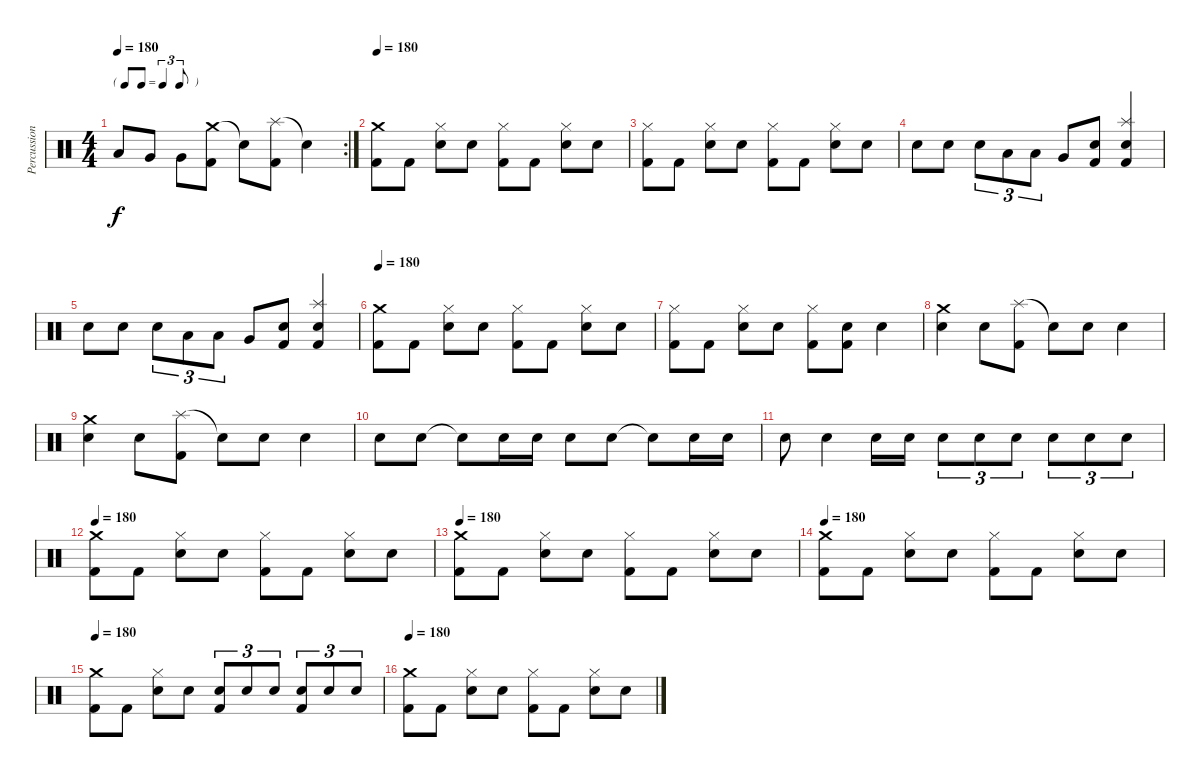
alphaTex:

\track ("Percussions" "Percussion") {instrument percussion}
\staff {score}
\articulation defaults
\rc 2
\ts (4 4)
\tf triplet8th
\tempo 180
\clef neutral
\ks c "Low Tom (hit)".8{dy f} "Very Low Tom (hit)".8 "Very Low Tom (hit)".8
("Crash medium (hit)" "Kick (hit) 2").8 "Snare (hit)"{t}.8 ("Splash (hit)" "Kick (hit) 2").8 "Snare (hit)"{t}.4 |
\tempo 180
("Crash medium (hit)" "Kick (hit) 2").8 "Kick (hit) 2".8 ("Hi-Hat (closed)" "Electric Snare (hit)").8 "Electric Snare (hit)".8 ("Hi-Hat (closed)" "Kick (hit) 2").8 "Kick (hit) 2".8 ("Hi-Hat (closed)" "Electric Snare (hit)").8 "Electric Snare (hit)".8 |
("Hi-Hat (closed)" "Kick (hit) 2").8 "Kick (hit) 2".8 ("Hi-Hat (closed)" "Electric Snare (hit)").8 "Electric Snare (hit)".8 ("Hi-Hat (closed)" "Kick (hit) 2").8 "Kick (hit) 2".8 ("Hi-Hat (closed)" "Electric Snare (hit)").8 "Electric Snare (hit)".8 |
"Electric Snare (hit)".8 "Electric Snare (hit)".8 "Electric Snare (hit)".8{tu (3 2)} "Low Tom (hit)".8{tu (3 2)} "Low Tom (hit)".8{tu (3 2)} "Very Low Tom (hit)".8 ("Electric Snare (hit)" "Kick (hit) 2").8 ("Splash (hit)" "Electric Snare (hit)" "Kick (hit) 2").4 |
"Electric Snare (hit)".8 "Electric Snare (hit)".8 "Electric Snare (hit)".8{tu (3 2)} "Low Tom (hit)".8{tu (3 2)} "Low Tom (hit)".8{tu (3 2)} "Very Low Tom (hit)".8 ("Electric Snare (hit)" "Kick (hit) 2").8 ("Splash (hit)" "Electric Snare (hit)" "Kick (hit) 2").4 |
\tempo 180
("Crash medium (hit)" "Kick (hit) 2").8 "Kick (hit) 2".8 ("Hi-Hat (closed)" "Electric Snare (hit)").8 "Electric Snare (hit)".8 ("Hi-Hat (closed)" "Kick (hit) 2").8 "Kick (hit) 2".8 ("Hi-Hat (closed)" "Electric Snare (hit)").8 "Electric Snare (hit)".8 |
("Hi-Hat (closed)" "Kick (hit) 2").8 "Kick (hit) 2".8 ("Hi-Hat (closed)" "Electric Snare (hit)").8 "Electric Snare (hit)".8 ("Hi-Hat (closed)" "Kick (hit) 2").8 ("Electric Snare (hit)" "Kick (hit) 2").8 "Electric Snare (hit)".4 |
("Crash medium (hit)" "Electric Snare (hit)").4 "Electric Snare (hit)".8 ("Splash (hit)" "Kick (hit) 2").8 "Snare (hit)"{t}.8 "Electric Snare (hit)".8 "Electric Snare (hit)".4 |
("Crash medium (hit)" "Electric Snare (hit)").4 "Electric Snare (hit)".8 ("Splash (hit)" "Kick (hit) 2").8 "Snare (hit)"{t}.8 "Electric Snare (hit)".8 "Electric Snare (hit)".4 |
"Electric Snare (hit)".8 "Electric Snare (hit)".8 "Snare (hit)"{t}.8 "Electric Snare (hit)".16 "Electric Snare (hit)".16 "Electric Snare (hit)".8 "Electric Snare (hit)".8 "Snare (hit)"{t}.8 "Electric Snare (hit)".16 "Electric Snare (hit)".16 |
"Electric Snare (hit)".8 "Electric Snare (hit)".4 "Electric Snare (hit)".16 "Electric Snare (hit)".16 "Electric Snare (hit)".8{tu (3 2)} "Electric Snare (hit)".8{tu (3 2)} "Electric Snare (hit)".8{tu (3 2)} "Electric Snare (hit)".8{tu (3 2)} "Electric Snare (hit)".8{tu (3 2)} "Electric Snare (hit)".8{tu (3 2)} |
\tempo 180
("Crash medium (hit)" "Kick (hit) 2").8 "Kick (hit) 2".8 ("Hi-Hat (closed)" "Electric Snare (hit)").8 "Electric Snare (hit)".8 ("Hi-Hat (closed)" "Kick (hit) 2").8 "Kick (hit) 2".8 ("Hi-Hat (closed)" "Electric Snare (hit)").8 "Electric Snare (hit)".8 |
\tempo 180
("Crash medium (hit)" "Kick (hit) 2").8 "Kick (hit) 2".8 ("Hi-Hat (closed)" "Electric Snare (hit)").8 "Electric Snare (hit)".8 ("Hi-Hat (closed)" "Kick (hit) 2").8 "Kick (hit) 2".8 ("Hi-Hat (closed)" "Electric Snare (hit)").8 "Electric Snare (hit)".8 |
\tempo 180
("Crash medium (hit)" "Kick (hit) 2").8 "Kick (hit) 2".8 ("Hi-Hat (closed)" "Electric Snare (hit)").8 "Electric Snare (hit)".8 ("Hi-Hat (closed)" "Kick (hit) 2").8 "Kick (hit) 2".8 ("Hi-Hat (closed)" "Electric Snare (hit)").8 "Electric Snare (hit)".8 |
\tempo 180
("Crash medium (hit)" "Kick (hit) 2").8 "Kick (hit) 2".8 ("Hi-Hat (closed)" "Electric Snare (hit)").8 "Electric Snare (hit)".8 ("Electric Snare (hit)" "Kick (hit) 2").8{tu (3 2)} "Electric Snare (hit)".8{tu (3 2)} "Electric Snare (hit)".8{tu (3 2)} ("Electric Snare (hit)" "Kick (hit) 2").8{tu (3 2)} "Electric Snare (hit)".8{tu (3 2)} "Electric Snare (hit)".8{tu (3 2)} |
\tempo 180
("Crash medium (hit)" "Kick (hit) 2").8 "Kick (hit) 2".8 ("Hi-Hat (closed)" "Electric Snare (hit)").8 "Electric Snare (hit)".8 ("Hi-Hat (closed)" "Kick (hit) 2").8 "Kick (hit) 2".8 ("Hi-Hat (closed)" "Electric Snare (hit)").8 "Electric Snare (hit)".8
